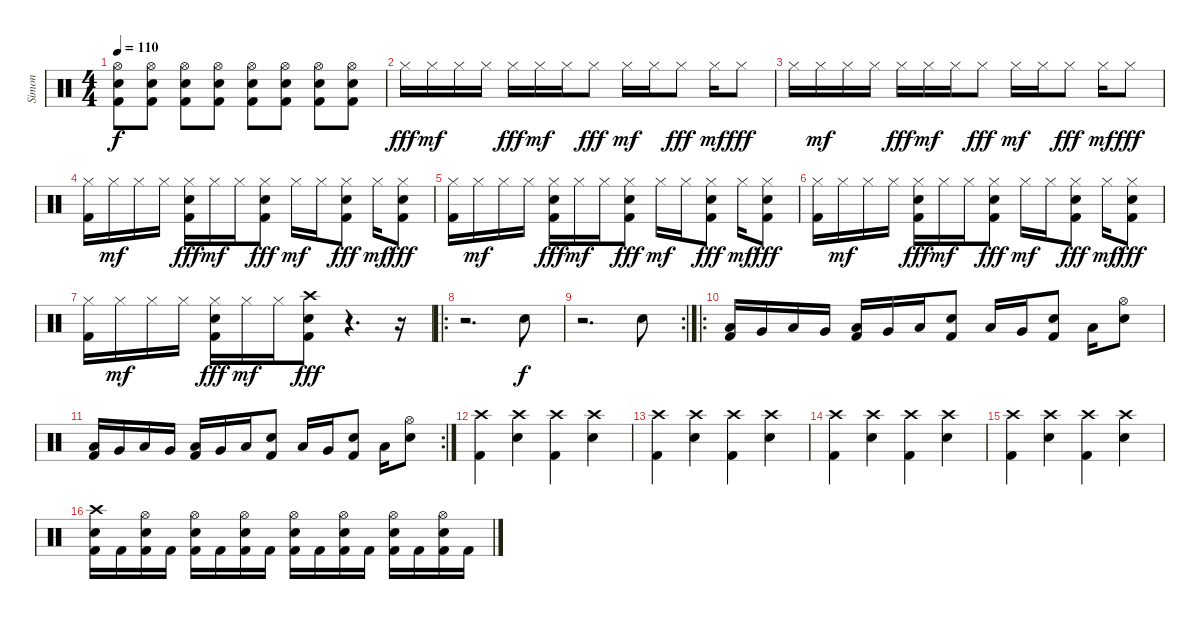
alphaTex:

\track ("Simon" "Simon") {instrument percussion}
\staff {score}
\articulation defaults
\ts (4 4)
\tempo 110
\clef neutral
\ks c
("Hi-Hat (open)" "Snare (hit) 2" "Kick (hit) 2").8{dy f} ("Hi-Hat (open)" "Snare (hit) 2" "Kick (hit) 2").8 ("Hi-Hat (open)" "Snare (hit) 2" "Kick (hit) 2").8 ("Hi-Hat (open)" "Snare (hit) 2" "Kick (hit) 2").8 ("Hi-Hat (open)" "Snare (hit) 2" "Kick (hit) 2").8 ("Hi-Hat (open)" "Snare (hit) 2" "Kick (hit) 2").8 ("Hi-Hat (open)" "Snare (hit) 2" "Kick (hit) 2").8 ("Hi-Hat (open)" "Snare (hit) 2" "Kick (hit) 2").8 |
"Hi-Hat (closed)".16{dy fff} "Hi-Hat (closed)".16{dy mf} "Hi-Hat (closed)".16 "Hi-Hat (closed)".16 "Hi-Hat (closed)".16{dy fff} "Hi-Hat (closed)".16{dy mf} "Hi-Hat (closed)".16 "Hi-Hat (closed)".8{dy fff} "Hi-Hat (closed)".16{dy mf} "Hi-Hat (closed)".16 "Hi-Hat (closed)".8{dy fff} "Hi-Hat (closed)".16{dy mf} "Hi-Hat (closed)".8{dy fff} |
"Hi-Hat (closed)".16 "Hi-Hat (closed)".16{dy mf} "Hi-Hat (closed)".16 "Hi-Hat (closed)".16 "Hi-Hat (closed)".16{dy fff} "Hi-Hat (closed)".16{dy mf} "Hi-Hat (closed)".16 "Hi-Hat (closed)".8{dy fff} "Hi-Hat (closed)".16{dy mf} "Hi-Hat (closed)".16 "Hi-Hat (closed)".8{dy fff} "Hi-Hat (closed)".16{dy mf} "Hi-Hat (closed)".8{dy fff} |
("Hi-Hat (closed)" "Kick (hit) 2").16 "Hi-Hat (closed)".16{dy mf} "Hi-Hat (closed)".16 "Hi-Hat (closed)".16 ("Hi-Hat (closed)" "Snare (hit) 2" "Kick (hit) 2").16{dy fff} "Hi-Hat (closed)".16{dy mf} "Hi-Hat (closed)".16 ("Hi-Hat (closed)" "Snare (hit) 2" "Kick (hit) 2").8{dy fff} "Hi-Hat (closed)".16{dy mf} "Hi-Hat (closed)".16 ("Hi-Hat (closed)" "Snare (hit) 2" "Kick (hit) 2").8{dy fff} "Hi-Hat (closed)".16{dy mf} ("Hi-Hat (closed)" "Snare (hit) 2" "Kick (hit) 2").8{dy fff} |
("Hi-Hat (closed)" "Kick (hit) 2").16 "Hi-Hat (closed)".16{dy mf} "Hi-Hat (closed)".16 "Hi-Hat (closed)".16 ("Hi-Hat (closed)" "Snare (hit) 2" "Kick (hit) 2").16{dy fff} "Hi-Hat (closed)".16{dy mf} "Hi-Hat (closed)".16 ("Hi-Hat (closed)" "Snare (hit) 2" "Kick (hit) 2").8{dy fff} "Hi-Hat (closed)".16{dy mf} "Hi-Hat (closed)".16 ("Hi-Hat (closed)" "Snare (hit) 2" "Kick (hit) 2").8{dy fff} "Hi-Hat (closed)".16{dy mf} ("Hi-Hat (closed)" "Snare (hit) 2" "Kick (hit) 2").8{dy fff} |
("Hi-Hat (closed)" "Kick (hit) 2").16 "Hi-Hat (closed)".16{dy mf} "Hi-Hat (closed)".16 "Hi-Hat (closed)".16 ("Hi-Hat (closed)" "Snare (hit) 2" "Kick (hit) 2").16{dy fff} "Hi-Hat (closed)".16{dy mf} "Hi-Hat (closed)".16 ("Hi-Hat (closed)" "Snare (hit) 2" "Kick (hit) 2").8{dy fff} "Hi-Hat (closed)".16{dy mf} "Hi-Hat (closed)".16 ("Hi-Hat (closed)" "Snare (hit) 2" "Kick (hit) 2").8{dy fff} "Hi-Hat (closed)".16{dy mf} ("Hi-Hat (closed)" "Snare (hit) 2" "Kick (hit) 2").8{dy fff} |
("Hi-Hat (closed)" "Kick (hit) 2").16 "Hi-Hat (closed)".16{dy mf} "Hi-Hat (closed)".16 "Hi-Hat (closed)".16 ("Hi-Hat (closed)" "Snare (hit) 2" "Kick (hit) 2").16{dy fff} "Hi-Hat (closed)".16{dy mf} "Hi-Hat (closed)".16 ("Crash high (hit)" "Snare (hit) 2" "Kick (hit) 2").8{dy fff} r.4{d} r.16 |
\ro
r.2{d} "Snare (hit) 2".8{dy f} |
\rc 2
r.2{d} "Snare (hit) 2".8 |
\ro
("Low Tom (hit)" "Kick (hit) 2").16 "Very Low Tom (hit)".16 "Low Tom (hit)".16 "Very Low Tom (hit)".16 ("Low Tom (hit)" "Kick (hit) 2").16 "Very Low Tom (hit)".16 "Low Tom (hit)".16 ("Snare (hit) 2" "Kick (hit) 2").8 "Low Tom (hit)".16 "Very Low Tom (hit)".16 ("Snare (hit) 2" "Kick (hit) 2").8 "Low Tom (hit)".16 ("Hi-Hat (open)" "Snare (hit) 2").8 |
\rc 2
("Low Tom (hit)" "Kick (hit) 2").16 "Very Low Tom (hit)".16 "Low Tom (hit)".16 "Very Low Tom (hit)".16 ("Low Tom (hit)" "Kick (hit) 2").16 "Very Low Tom (hit)".16 "Low Tom (hit)".16 ("Snare (hit) 2" "Kick (hit) 2").8 "Low Tom (hit)".16 "Very Low Tom (hit)".16 ("Snare (hit) 2" "Kick (hit) 2").8 "Low Tom (hit)".16 ("Hi-Hat (open)" "Snare (hit) 2").8 |
("Crash high (hit)" "Kick (hit) 2").4 ("Crash high (hit)" "Snare (hit) 2").4 ("Crash high (hit)" "Kick (hit) 2").4 ("Crash high (hit)" "Snare (hit) 2").4 |
("Crash high (hit)" "Kick (hit) 2").4 ("Crash high (hit)" "Snare (hit) 2").4 ("Crash high (hit)" "Kick (hit) 2").4 ("Crash high (hit)" "Snare (hit) 2").4 |
("Crash high (hit)" "Kick (hit) 2").4 ("Crash high (hit)" "Snare (hit) 2").4 ("Crash high (hit)" "Kick (hit) 2").4 ("Crash high (hit)" "Snare (hit) 2").4 |
("Crash high (hit)" "Kick (hit) 2").4 ("Crash high (hit)" "Snare (hit) 2").4 ("Crash high (hit)" "Kick (hit) 2").4 ("Crash high (hit)" "Snare (hit) 2").4 |
("Crash high (hit)" "Snare (hit) 2" "Kick (hit) 2").16 "Kick (hit) 2".16 ("Hi-Hat (open)" "Snare (hit) 2" "Kick (hit) 2").16 "Kick (hit) 2".16 ("Hi-Hat (open)" "Snare (hit) 2" "Kick (hit) 2").16 "Kick (hit) 2".16 ("Hi-Hat (open)" "Snare (hit) 2" "Kick (hit) 2").16 "Kick (hit) 2".16 ("Hi-Hat (open)" "Snare (hit) 2" "Kick (hit) 2").16 "Kick (hit) 2".16 ("Hi-Hat (open)" "Snare (hit) 2" "Kick (hit) 2").16 "Kick (hit) 2".16 ("Hi-Hat (open)" "Snare (hit) 2" "Kick (hit) 2").16 "Kick (hit) 2".16 ("Hi-Hat (open)" "Snare (hit) 2" "Kick (hit) 2").16 "Kick (hit) 2".16
